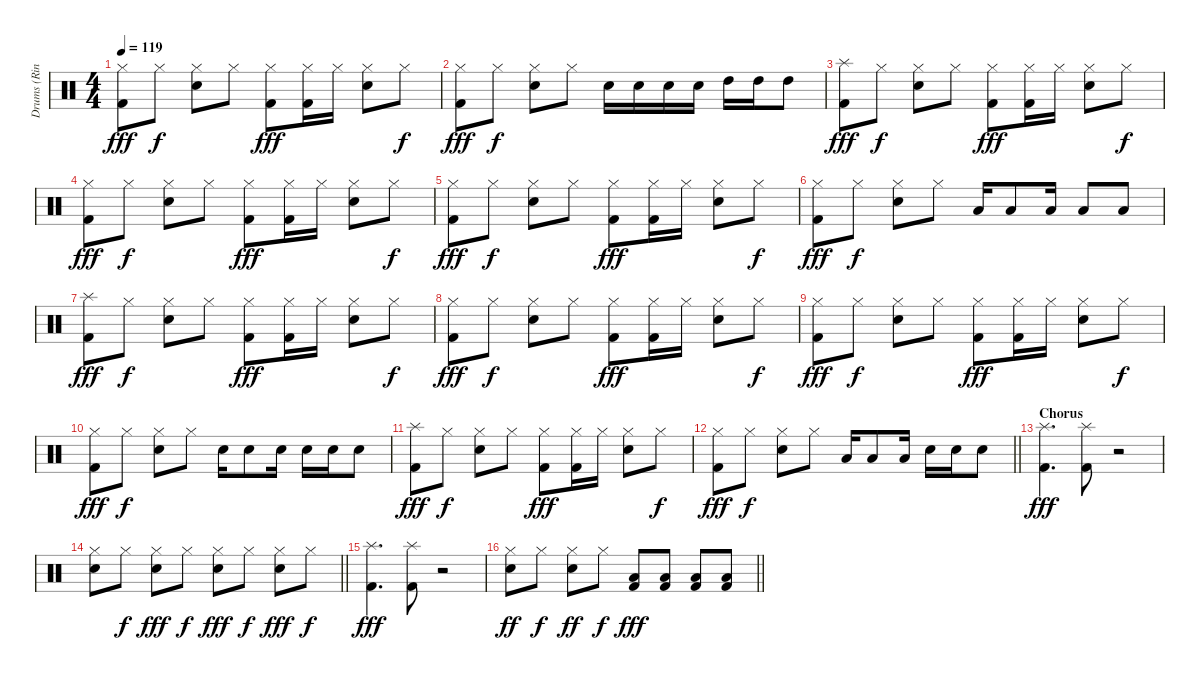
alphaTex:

\track ("Drums (Ringo Starr)" "Drums (Rin") {instrument percussion}
\staff {score}
\articulation defaults
\ts (4 4)
\tempo 119
\clef neutral
\ks c
("Hi-Hat (closed)" "Kick (hit) 2").8{dy fff} "Hi-Hat (closed)".8{dy f} ("Hi-Hat (closed)" "Snare (hit) 2").8 "Hi-Hat (closed)".8 ("Hi-Hat (closed)" "Kick (hit) 2").8{dy fff} ("Hi-Hat (closed)" "Kick (hit) 2").16 "Hi-Hat (closed)".16 ("Hi-Hat (closed)" "Snare (hit) 2").8 "Hi-Hat (closed)".8{dy f} |
("Hi-Hat (closed)" "Kick (hit) 2").8{dy fff} "Hi-Hat (closed)".8{dy f} ("Hi-Hat (closed)" "Snare (hit) 2").8 "Hi-Hat (closed)".8 "Snare (hit) 2".16 "Snare (hit) 2".16 "Snare (hit) 2".16 "Snare (hit) 2".16 "High Tom (hit)".16 "High Tom (hit)".16 "High Tom (hit)".8 |
("Splash (hit)" "Kick (hit) 2").8{dy fff} "Hi-Hat (closed)".8{dy f} ("Hi-Hat (closed)" "Snare (hit) 2").8 "Hi-Hat (closed)".8 ("Hi-Hat (closed)" "Kick (hit) 2").8{dy fff} ("Hi-Hat (closed)" "Kick (hit) 2").16 "Hi-Hat (closed)".16 ("Hi-Hat (closed)" "Snare (hit) 2").8 "Hi-Hat (closed)".8{dy f} |
("Hi-Hat (closed)" "Kick (hit) 2").8{dy fff} "Hi-Hat (closed)".8{dy f} ("Hi-Hat (closed)" "Snare (hit) 2").8 "Hi-Hat (closed)".8 ("Hi-Hat (closed)" "Kick (hit) 2").8{dy fff} ("Hi-Hat (closed)" "Kick (hit) 2").16 "Hi-Hat (closed)".16 ("Hi-Hat (closed)" "Snare (hit) 2").8 "Hi-Hat (closed)".8{dy f} |
("Hi-Hat (closed)" "Kick (hit) 2").8{dy fff} "Hi-Hat (closed)".8{dy f} ("Hi-Hat (closed)" "Snare (hit) 2").8 "Hi-Hat (closed)".8 ("Hi-Hat (closed)" "Kick (hit) 2").8{dy fff} ("Hi-Hat (closed)" "Kick (hit) 2").16 "Hi-Hat (closed)".16 ("Hi-Hat (closed)" "Snare (hit) 2").8 "Hi-Hat (closed)".8{dy f} |
("Hi-Hat (closed)" "Kick (hit) 2").8{dy fff} "Hi-Hat (closed)".8{dy f} ("Hi-Hat (closed)" "Snare (hit) 2").8 "Hi-Hat (closed)".8 "Low Floor Tom (hit)".16 "Low Floor Tom (hit)".8 "Low Floor Tom (hit)".16 "Low Floor Tom (hit)".8 "Low Floor Tom (hit)".8 |
("Splash (hit)" "Kick (hit) 2").8{dy fff} "Hi-Hat (closed)".8{dy f} ("Hi-Hat (closed)" "Snare (hit) 2").8 "Hi-Hat (closed)".8 ("Hi-Hat (closed)" "Kick (hit) 2").8{dy fff} ("Hi-Hat (closed)" "Kick (hit) 2").16 "Hi-Hat (closed)".16 ("Hi-Hat (closed)" "Snare (hit) 2").8 "Hi-Hat (closed)".8{dy f} |
("Hi-Hat (closed)" "Kick (hit) 2").8{dy fff} "Hi-Hat (closed)".8{dy f} ("Hi-Hat (closed)" "Snare (hit) 2").8 "Hi-Hat (closed)".8 ("Hi-Hat (closed)" "Kick (hit) 2").8{dy fff} ("Hi-Hat (closed)" "Kick (hit) 2").16 "Hi-Hat (closed)".16 ("Hi-Hat (closed)" "Snare (hit) 2").8 "Hi-Hat (closed)".8{dy f} |
("Hi-Hat (closed)" "Kick (hit) 2").8{dy fff} "Hi-Hat (closed)".8{dy f} ("Hi-Hat (closed)" "Snare (hit) 2").8 "Hi-Hat (closed)".8 ("Hi-Hat (closed)" "Kick (hit) 2").8{dy fff} ("Hi-Hat (closed)" "Kick (hit) 2").16 "Hi-Hat (closed)".16 ("Hi-Hat (closed)" "Snare (hit) 2").8 "Hi-Hat (closed)".8{dy f} |
("Hi-Hat (closed)" "Kick (hit) 2").8{dy fff} "Hi-Hat (closed)".8{dy f} ("Hi-Hat (closed)" "Snare (hit) 2").8 "Hi-Hat (closed)".8 "Snare (hit) 2".16 "Snare (hit) 2".8 "Snare (hit) 2".16 "Snare (hit) 2".16 "Snare (hit) 2".16 "Snare (hit) 2".8 |
("Splash (hit)" "Kick (hit) 2").8{dy fff} "Hi-Hat (closed)".8{dy f} ("Hi-Hat (closed)" "Snare (hit) 2").8 "Hi-Hat (closed)".8 ("Hi-Hat (closed)" "Kick (hit) 2").8{dy fff} ("Hi-Hat (closed)" "Kick (hit) 2").16 "Hi-Hat (closed)".16 ("Hi-Hat (closed)" "Snare (hit) 2").8 "Hi-Hat (closed)".8{dy f} |
\barLineRight lightlight
("Hi-Hat (closed)" "Kick (hit) 2").8{dy fff} "Hi-Hat (closed)".8{dy f} ("Hi-Hat (closed)" "Snare (hit) 2").8 "Hi-Hat (closed)".8 "Low Floor Tom (hit)".16 "Low Floor Tom (hit)".8 "Low Floor Tom (hit)".16 "Snare (hit) 2".16 "Snare (hit) 2".16 "Snare (hit) 2".8 |
\section ("" "Chorus")
("Splash (hit)" "Kick (hit) 2").4{d dy fff} ("Splash (hit)" "Kick (hit) 2").8 r.2 |
\barLineRight lightlight
("Hi-Hat (closed)" "Snare (hit) 2").8 "Hi-Hat (closed)".8{dy f} ("Hi-Hat (closed)" "Snare (hit) 2").8{dy fff} "Hi-Hat (closed)".8{dy f} ("Hi-Hat (closed)" "Snare (hit) 2").8{dy fff} "Hi-Hat (closed)".8{dy f} ("Hi-Hat (closed)" "Snare (hit) 2").8{dy fff} "Hi-Hat (closed)".8{dy f} |
("Splash (hit)" "Kick (hit) 2").4{d dy fff} ("Splash (hit)" "Kick (hit) 2").8 r.2 |
\barLineRight lightlight
("Hi-Hat (closed)" "Snare (hit) 2").8{dy ff} "Hi-Hat (closed)".8{dy f} ("Hi-Hat (closed)" "Snare (hit) 2").8{dy ff} "Hi-Hat (closed)".8{dy f} ("Low Floor Tom (hit)" "Kick (hit) 2").8{dy fff} ("Low Floor Tom (hit)" "Kick (hit) 2").8 ("Low Floor Tom (hit)" "Kick (hit) 2").8 ("Low Floor Tom (hit)" "Kick (hit) 2").8
